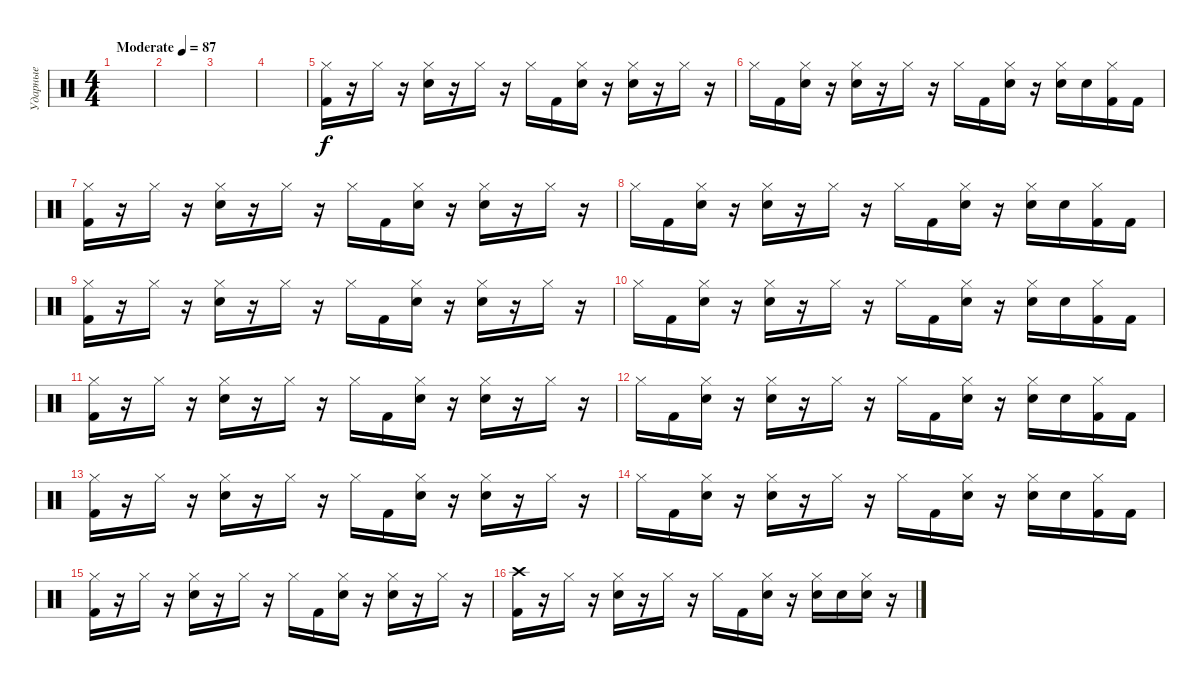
\track ("Ударные" "Ударные") {instrument percussion}
\staff {score}
\articulation defaults
\ts (4 4)
\tempo (87 "Moderate")
\clef neutral
\ks c
|
|
|
|
("Hi-Hat (closed)" "Kick (hit) 2").16 r.16 "Hi-Hat (closed)".16 r.16 ("Hi-Hat (closed)" "Electric Snare (hit)").16 r.16 "Hi-Hat (closed)".16 r.16 "Hi-Hat (closed)".16 "Kick (hit) 2".16 ("Hi-Hat (closed)" "Electric Snare (hit)").16 r.16 ("Hi-Hat (closed)" "Electric Snare (hit)").16 r.16 "Hi-Hat (closed)".16 r.16 |
"Hi-Hat (closed)".16 "Kick (hit) 2".16 ("Hi-Hat (closed)" "Electric Snare (hit)").16 r.16 ("Hi-Hat (closed)" "Electric Snare (hit)").16 r.16 "Hi-Hat (closed)".16 r.16 "Hi-Hat (closed)".16 "Kick (hit) 2".16 ("Hi-Hat (closed)" "Electric Snare (hit)").16 r.16 ("Hi-Hat (closed)" "Electric Snare (hit)").16 "Electric Snare (hit)".16 ("Hi-Hat (closed)" "Kick (hit) 2").16 "Kick (hit) 2".16 |
("Hi-Hat (closed)" "Kick (hit) 2").16 r.16 "Hi-Hat (closed)".16 r.16 ("Hi-Hat (closed)" "Electric Snare (hit)").16 r.16 "Hi-Hat (closed)".16 r.16 "Hi-Hat (closed)".16 "Kick (hit) 2".16 ("Hi-Hat (closed)" "Electric Snare (hit)").16 r.16 ("Hi-Hat (closed)" "Electric Snare (hit)").16 r.16 "Hi-Hat (closed)".16 r.16 |
"Hi-Hat (closed)".16 "Kick (hit) 2".16 ("Hi-Hat (closed)" "Electric Snare (hit)").16 r.16 ("Hi-Hat (closed)" "Electric Snare (hit)").16 r.16 "Hi-Hat (closed)".16 r.16 "Hi-Hat (closed)".16 "Kick (hit) 2".16 ("Hi-Hat (closed)" "Electric Snare (hit)").16 r.16 ("Hi-Hat (closed)" "Electric Snare (hit)").16 "Electric Snare (hit)".16 ("Hi-Hat (closed)" "Kick (hit) 2").16 "Kick (hit) 2".16 |
("Hi-Hat (closed)" "Kick (hit) 2").16 r.16 "Hi-Hat (closed)".16 r.16 ("Hi-Hat (closed)" "Electric Snare (hit)").16 r.16 "Hi-Hat (closed)".16 r.16 "Hi-Hat (closed)".16 "Kick (hit) 2".16 ("Hi-Hat (closed)" "Electric Snare (hit)").16 r.16 ("Hi-Hat (closed)" "Electric Snare (hit)").16 r.16 "Hi-Hat (closed)".16 r.16 |
"Hi-Hat (closed)".16 "Kick (hit) 2".16 ("Hi-Hat (closed)" "Electric Snare (hit)").16 r.16 ("Hi-Hat (closed)" "Electric Snare (hit)").16 r.16 "Hi-Hat (closed)".16 r.16 "Hi-Hat (closed)".16 "Kick (hit) 2".16 ("Hi-Hat (closed)" "Electric Snare (hit)").16 r.16 ("Hi-Hat (closed)" "Electric Snare (hit)").16 "Electric Snare (hit)".16 ("Hi-Hat (closed)" "Kick (hit) 2").16 "Kick (hit) 2".16 |
("Hi-Hat (closed)" "Kick (hit) 2").16 r.16 "Hi-Hat (closed)".16 r.16 ("Hi-Hat (closed)" "Electric Snare (hit)").16 r.16 "Hi-Hat (closed)".16 r.16 "Hi-Hat (closed)".16 "Kick (hit) 2".16 ("Hi-Hat (closed)" "Electric Snare (hit)").16 r.16 ("Hi-Hat (closed)" "Electric Snare (hit)").16 r.16 "Hi-Hat (closed)".16 r.16 |
"Hi-Hat (closed)".16 "Kick (hit) 2".16 ("Hi-Hat (closed)" "Electric Snare (hit)").16 r.16 ("Hi-Hat (closed)" "Electric Snare (hit)").16 r.16 "Hi-Hat (closed)".16 r.16 "Hi-Hat (closed)".16 "Kick (hit) 2".16 ("Hi-Hat (closed)" "Electric Snare (hit)").16 r.16 ("Hi-Hat (closed)" "Electric Snare (hit)").16 "Electric Snare (hit)".16 ("Hi-Hat (closed)" "Kick (hit) 2").16 "Kick (hit) 2".16 |
("Hi-Hat (closed)" "Kick (hit) 2").16 r.16 "Hi-Hat (closed)".16 r.16 ("Hi-Hat (closed)" "Electric Snare (hit)").16 r.16 "Hi-Hat (closed)".16 r.16 "Hi-Hat (closed)".16 "Kick (hit) 2".16 ("Hi-Hat (closed)" "Electric Snare (hit)").16 r.16 ("Hi-Hat (closed)" "Electric Snare (hit)").16 r.16 "Hi-Hat (closed)".16 r.16 |
"Hi-Hat (closed)".16 "Kick (hit) 2".16 ("Hi-Hat (closed)" "Electric Snare (hit)").16 r.16 ("Hi-Hat (closed)" "Electric Snare (hit)").16 r.16 "Hi-Hat (closed)".16 r.16 "Hi-Hat (closed)".16 "Kick (hit) 2".16 ("Hi-Hat (closed)" "Electric Snare (hit)").16 r.16 ("Hi-Hat (closed)" "Electric Snare (hit)").16 "Electric Snare (hit)".16 ("Hi-Hat (closed)" "Kick (hit) 2").16 "Kick (hit) 2".16 |
("Hi-Hat (closed)" "Kick (hit) 2").16 r.16 "Hi-Hat (closed)".16 r.16 ("Hi-Hat (closed)" "Electric Snare (hit)").16 r.16 "Hi-Hat (closed)".16 r.16 "Hi-Hat (closed)".16 "Kick (hit) 2".16 ("Hi-Hat (closed)" "Electric Snare (hit)").16 r.16 ("Hi-Hat (closed)" "Electric Snare (hit)").16 r.16 "Hi-Hat (closed)".16 r.16 |
("Crash high (hit)" "Kick (hit) 2").16 r.16 "Hi-Hat (closed)".16 r.16 ("Hi-Hat (closed)" "Electric Snare (hit)").16 r.16 "Hi-Hat (closed)".16 r.16 "Hi-Hat (closed)".16 "Kick (hit) 2".16 ("Hi-Hat (closed)" "Electric Snare (hit)").16 r.16 ("Hi-Hat (closed)" "Electric Snare (hit)").16 "Electric Snare (hit)".16 ("Hi-Hat (closed)" "Electric Snare (hit)").16 r.16
